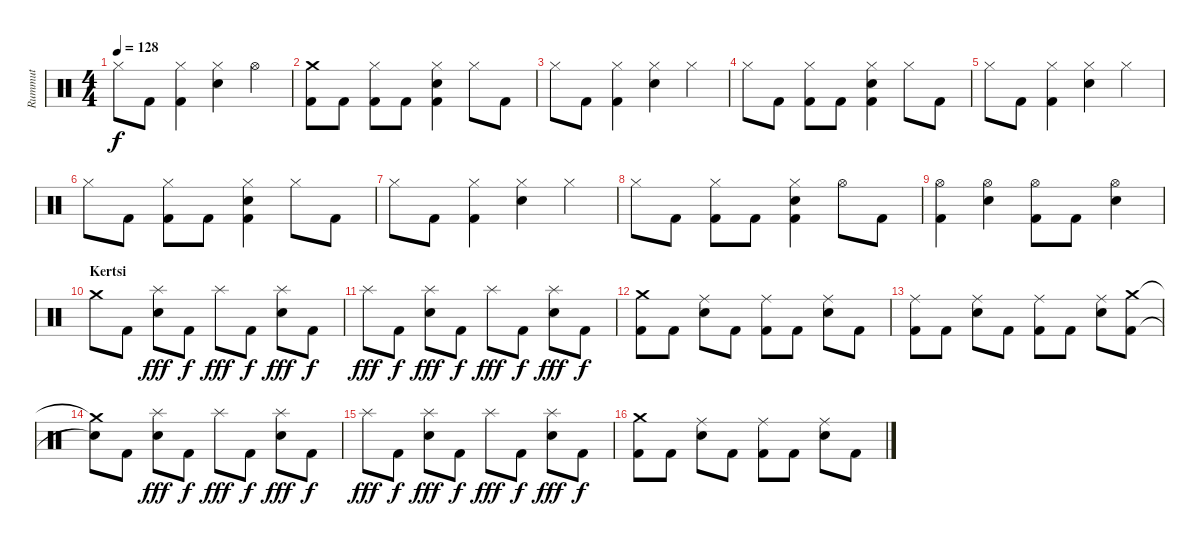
\track ("Rummut" "Rummut") {instrument percussion}
\staff {score}
\articulation defaults
\ts (4 4)
\tempo 128
\clef neutral
\ks c "Hi-Hat (closed)".8{dy f} "Kick (hit) 2".8
("Kick (hit) 2" "Hi-Hat (closed)").4 ("Hi-Hat (closed)" "Snare (hit) 2").4 "Hi-Hat (open)".4 |
("Kick (hit) 2" "Crash medium (hit)").8 "Kick (hit) 2".8 ("Kick (hit) 2" "Hi-Hat (closed)").8 "Kick (hit) 2".8 ("Kick (hit) 2" "Hi-Hat (closed)" "Snare (hit) 2").4 "Hi-Hat (closed)".8 "Kick (hit) 2".8 |
"Hi-Hat (closed)".8 "Kick (hit) 2".8 ("Kick (hit) 2" "Hi-Hat (closed)").4 ("Hi-Hat (closed)" "Snare (hit) 2").4 "Hi-Hat (closed)".4 |
"Hi-Hat (closed)".8 "Kick (hit) 2".8 ("Kick (hit) 2" "Hi-Hat (closed)").8 "Kick (hit) 2".8 ("Kick (hit) 2" "Hi-Hat (closed)" "Snare (hit) 2").4 "Hi-Hat (closed)".8 "Kick (hit) 2".8 |
"Hi-Hat (closed)".8 "Kick (hit) 2".8 ("Kick (hit) 2" "Hi-Hat (closed)").4 ("Hi-Hat (closed)" "Snare (hit) 2").4 "Hi-Hat (closed)".4 |
"Hi-Hat (closed)".8 "Kick (hit) 2".8 ("Kick (hit) 2" "Hi-Hat (closed)").8 "Kick (hit) 2".8 ("Kick (hit) 2" "Hi-Hat (closed)" "Snare (hit) 2").4 "Hi-Hat (closed)".8 "Kick (hit) 2".8 |
"Hi-Hat (closed)".8 "Kick (hit) 2".8 ("Kick (hit) 2" "Hi-Hat (closed)").4 ("Hi-Hat (closed)" "Snare (hit) 2").4 "Hi-Hat (closed)".4 |
"Hi-Hat (closed)".8 "Kick (hit) 2".8 ("Kick (hit) 2" "Hi-Hat (closed)").8 "Kick (hit) 2".8 ("Kick (hit) 2" "Hi-Hat (closed)" "Snare (hit) 2").4 "Hi-Hat (open)".8 "Kick (hit) 2".8 |
("Kick (hit) 2" "Hi-Hat (open)").4 ("Hi-Hat (open)" "Snare (hit) 2").4 ("Kick (hit) 2" "Hi-Hat (open)").8 "Kick (hit) 2".8 ("Hi-Hat (open)" "Snare (hit) 2").4 |
\section ("" "Kertsi")
"Crash medium (hit)".8 "Kick (hit) 2".8 ("Splash (hit)" "Snare (hit) 2").8{dy fff} "Kick (hit) 2".8{dy f} "Splash (hit)".8{dy fff} "Kick (hit) 2".8{dy f} ("Splash (hit)" "Snare (hit) 2").8{dy fff} "Kick (hit) 2".8{dy f} |
"Splash (hit)".8{dy fff} "Kick (hit) 2".8{dy f} ("Splash (hit)" "Snare (hit) 2").8{dy fff} "Kick (hit) 2".8{dy f} "Splash (hit)".8{dy fff} "Kick (hit) 2".8{dy f} ("Splash (hit)" "Snare (hit) 2").8{dy fff} "Kick (hit) 2".8{dy f} |
("Kick (hit) 2" "Crash medium (hit)").8 "Kick (hit) 2".8 ("Ride (middle)" "Snare (hit) 2").8 "Kick (hit) 2".8 ("Kick (hit) 2" "Ride (middle)").8 "Kick (hit) 2".8 ("Ride (middle)" "Snare (hit) 2").8 "Kick (hit) 2".8 |
("Kick (hit) 2" "Ride (middle)").8 "Kick (hit) 2".8 ("Ride (middle)" "Snare (hit) 2").8 "Kick (hit) 2".8 ("Kick (hit) 2" "Ride (middle)").8 "Kick (hit) 2".8 ("Ride (middle)" "Snare (hit) 2").8 ("Kick (hit) 2" "Crash medium (hit)").8 |
("Snare (hit)"{t} "Crash medium (hit)"{t}).8 "Kick (hit) 2".8 ("Splash (hit)" "Snare (hit) 2").8{dy fff} "Kick (hit) 2".8{dy f} "Splash (hit)".8{dy fff} "Kick (hit) 2".8{dy f} ("Splash (hit)" "Snare (hit) 2").8{dy fff} "Kick (hit) 2".8{dy f} |
"Splash (hit)".8{dy fff} "Kick (hit) 2".8{dy f} ("Splash (hit)" "Snare (hit) 2").8{dy fff} "Kick (hit) 2".8{dy f} "Splash (hit)".8{dy fff} "Kick (hit) 2".8{dy f} ("Splash (hit)" "Snare (hit) 2").8{dy fff} "Kick (hit) 2".8{dy f} |
("Kick (hit) 2" "Crash medium (hit)").8 "Kick (hit) 2".8 ("Ride (middle)" "Snare (hit) 2").8 "Kick (hit) 2".8 ("Kick (hit) 2" "Ride (middle)").8 "Kick (hit) 2".8 ("Ride (middle)" "Snare (hit) 2").8 "Kick (hit) 2".8
